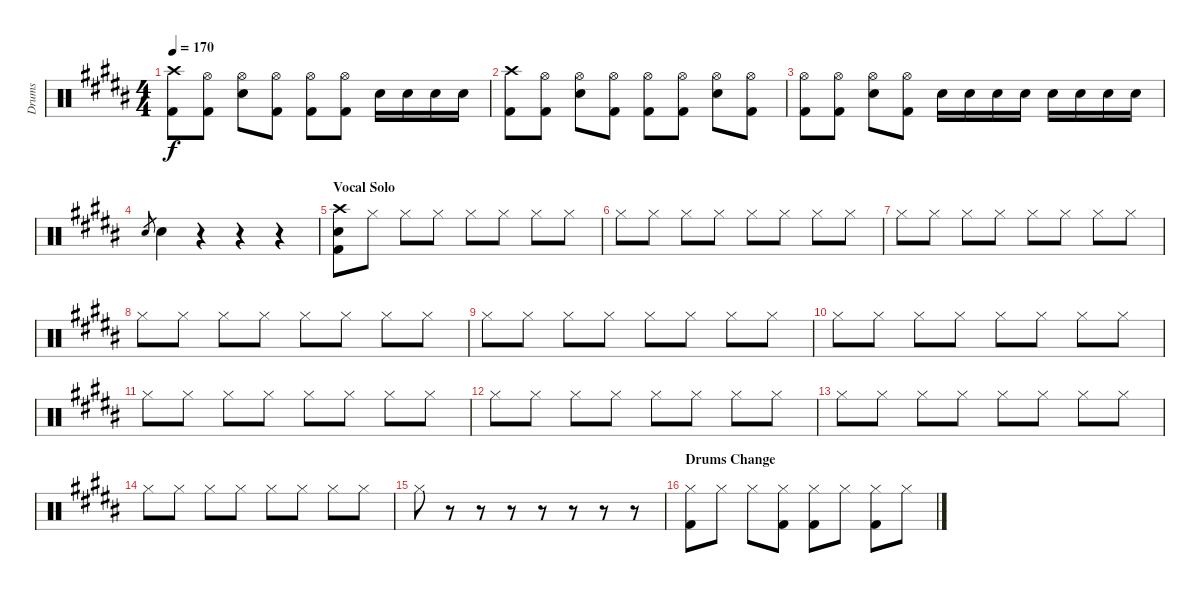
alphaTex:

\track ("Drums" "Drums") {instrument percussion}
\staff {score}
\articulation defaults
\ts (4 4)
\tempo 170
\clef neutral
\ks b
("Crash high (hit)" "Kick (hit) 2").8{dy f} ("Hi-Hat (open)" "Kick (hit) 2").8 ("Hi-Hat (open)" "Electric Snare (hit)").8 ("Hi-Hat (open)" "Kick (hit) 2").8 ("Hi-Hat (open)" "Kick (hit) 2").8 ("Hi-Hat (open)" "Kick (hit) 2").8 "Electric Snare (hit)".16 "Electric Snare (hit)".16 "Electric Snare (hit)".16 "Electric Snare (hit)".16 |
("Crash high (hit)" "Kick (hit) 2").8 ("Hi-Hat (open)" "Kick (hit) 2").8 ("Hi-Hat (open)" "Electric Snare (hit)").8 ("Hi-Hat (open)" "Kick (hit) 2").8 ("Hi-Hat (open)" "Kick (hit) 2").8 ("Hi-Hat (open)" "Kick (hit) 2").8 ("Hi-Hat (open)" "Electric Snare (hit)").8 ("Hi-Hat (open)" "Kick (hit) 2").8 |
("Hi-Hat (open)" "Kick (hit) 2").8 ("Hi-Hat (open)" "Kick (hit) 2").8 ("Hi-Hat (open)" "Electric Snare (hit)").8 ("Hi-Hat (open)" "Kick (hit) 2").8 "Electric Snare (hit)".16 "Electric Snare (hit)".16 "Electric Snare (hit)".16 "Electric Snare (hit)".16 "Electric Snare (hit)".16 "Electric Snare (hit)".16 "Electric Snare (hit)".16 "Electric Snare (hit)".16 |
"Electric Snare (hit)".8{gr} "Electric Snare (hit)".4 r.4 r.4 r.4 |
\section ("" "Vocal Solo")
("Crash high (hit)" "Kick (hit) 2" "Electric Snare (hit)").8 "Hi-Hat (closed)".8 "Hi-Hat (closed)".8 "Hi-Hat (closed)".8 "Hi-Hat (closed)".8 "Hi-Hat (closed)".8 "Hi-Hat (closed)".8 "Hi-Hat (closed)".8 |
"Hi-Hat (closed)".8 "Hi-Hat (closed)".8 "Hi-Hat (closed)".8 "Hi-Hat (closed)".8 "Hi-Hat (closed)".8 "Hi-Hat (closed)".8 "Hi-Hat (closed)".8 "Hi-Hat (closed)".8 |
"Hi-Hat (closed)".8 "Hi-Hat (closed)".8 "Hi-Hat (closed)".8 "Hi-Hat (closed)".8 "Hi-Hat (closed)".8 "Hi-Hat (closed)".8 "Hi-Hat (closed)".8 "Hi-Hat (closed)".8 |
"Hi-Hat (closed)".8 "Hi-Hat (closed)".8 "Hi-Hat (closed)".8 "Hi-Hat (closed)".8 "Hi-Hat (closed)".8 "Hi-Hat (closed)".8 "Hi-Hat (closed)".8 "Hi-Hat (closed)".8 |
"Hi-Hat (closed)".8 "Hi-Hat (closed)".8 "Hi-Hat (closed)".8 "Hi-Hat (closed)".8 "Hi-Hat (closed)".8 "Hi-Hat (closed)".8 "Hi-Hat (closed)".8 "Hi-Hat (closed)".8 |
"Hi-Hat (closed)".8 "Hi-Hat (closed)".8 "Hi-Hat (closed)".8 "Hi-Hat (closed)".8 "Hi-Hat (closed)".8 "Hi-Hat (closed)".8 "Hi-Hat (closed)".8 "Hi-Hat (closed)".8 |
"Hi-Hat (closed)".8 "Hi-Hat (closed)".8 "Hi-Hat (closed)".8 "Hi-Hat (closed)".8 "Hi-Hat (closed)".8 "Hi-Hat (closed)".8 "Hi-Hat (closed)".8 "Hi-Hat (closed)".8 |
"Hi-Hat (closed)".8 "Hi-Hat (closed)".8 "Hi-Hat (closed)".8 "Hi-Hat (closed)".8 "Hi-Hat (closed)".8 "Hi-Hat (closed)".8 "Hi-Hat (closed)".8 "Hi-Hat (closed)".8 |
"Hi-Hat (closed)".8 "Hi-Hat (closed)".8 "Hi-Hat (closed)".8 "Hi-Hat (closed)".8 "Hi-Hat (closed)".8 "Hi-Hat (closed)".8 "Hi-Hat (closed)".8 "Hi-Hat (closed)".8 |
"Hi-Hat (closed)".8 "Hi-Hat (closed)".8 "Hi-Hat (closed)".8 "Hi-Hat (closed)".8 "Hi-Hat (closed)".8 "Hi-Hat (closed)".8 "Hi-Hat (closed)".8 "Hi-Hat (closed)".8 |
"Hi-Hat (closed)".8 r.8 r.8 r.8 r.8 r.8 r.8 r.8 |
\section ("" "Drums Change")
("Hi-Hat (closed)" "Kick (hit) 2").8 "Hi-Hat (closed)".8 "Hi-Hat (closed)".8 ("Hi-Hat (closed)" "Kick (hit) 2").8 ("Hi-Hat (closed)" "Kick (hit) 2").8 "Hi-Hat (closed)".8 ("Hi-Hat (closed)" "Kick (hit) 2").8 "Hi-Hat (closed)".8
